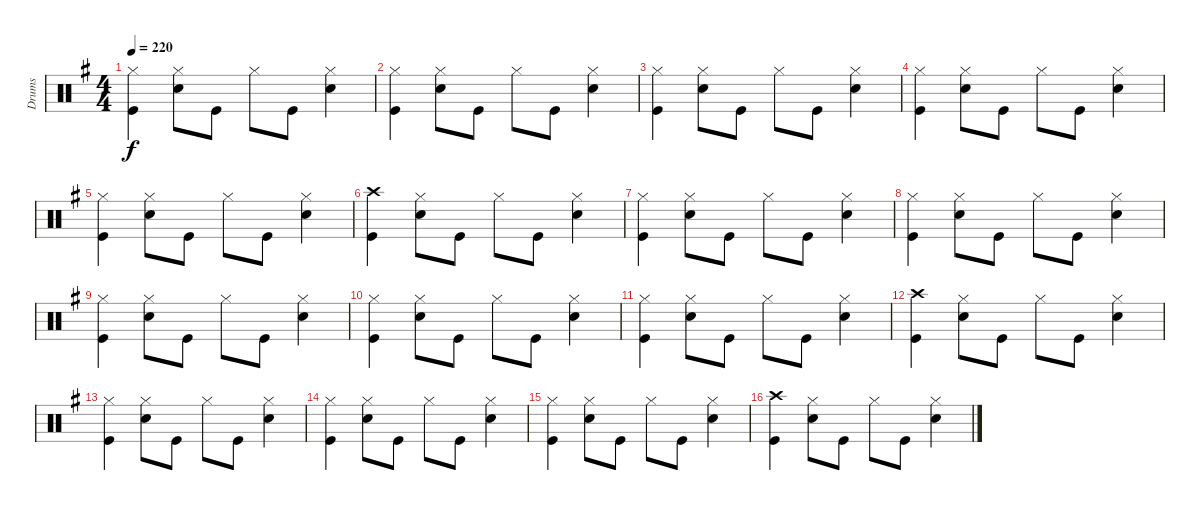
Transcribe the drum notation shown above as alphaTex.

\track ("Drums" "Drums") {instrument percussion}
\staff {score}
\articulation defaults
\ts (4 4)
\tempo 220
\clef neutral
\ks g
("Hi-Hat (closed)" "Kick (hit)").4{dy f} ("Hi-Hat (closed)" "Snare (hit) 2").8 "Kick (hit)".8 "Hi-Hat (closed)".8 "Kick (hit)".8 ("Hi-Hat (closed)" "Snare (hit) 2").4 |
("Hi-Hat (closed)" "Kick (hit)").4 ("Hi-Hat (closed)" "Snare (hit) 2").8 "Kick (hit)".8 "Hi-Hat (closed)".8 "Kick (hit)".8 ("Hi-Hat (closed)" "Snare (hit) 2").4 |
("Hi-Hat (closed)" "Kick (hit)").4 ("Hi-Hat (closed)" "Snare (hit) 2").8 "Kick (hit)".8 "Hi-Hat (closed)".8 "Kick (hit)".8 ("Hi-Hat (closed)" "Snare (hit) 2").4 |
("Hi-Hat (closed)" "Kick (hit)").4 ("Hi-Hat (closed)" "Snare (hit) 2").8 "Kick (hit)".8 "Hi-Hat (closed)".8 "Kick (hit)".8 ("Hi-Hat (closed)" "Snare (hit) 2").4 |
("Hi-Hat (closed)" "Kick (hit)").4 ("Hi-Hat (closed)" "Snare (hit) 2").8 "Kick (hit)".8 "Hi-Hat (closed)".8 "Kick (hit)".8 ("Hi-Hat (closed)" "Snare (hit) 2").4 |
("Crash high (hit)" "Kick (hit)").4 ("Hi-Hat (closed)" "Snare (hit) 2").8 "Kick (hit)".8 "Hi-Hat (closed)".8 "Kick (hit)".8 ("Hi-Hat (closed)" "Snare (hit) 2").4 |
("Hi-Hat (closed)" "Kick (hit)").4 ("Hi-Hat (closed)" "Snare (hit) 2").8 "Kick (hit)".8 "Hi-Hat (closed)".8 "Kick (hit)".8 ("Hi-Hat (closed)" "Snare (hit) 2").4 |
("Hi-Hat (closed)" "Kick (hit)").4 ("Hi-Hat (closed)" "Snare (hit) 2").8 "Kick (hit)".8 "Hi-Hat (closed)".8 "Kick (hit)".8 ("Hi-Hat (closed)" "Snare (hit) 2").4 |
("Hi-Hat (closed)" "Kick (hit)").4 ("Hi-Hat (closed)" "Snare (hit) 2").8 "Kick (hit)".8 "Hi-Hat (closed)".8 "Kick (hit)".8 ("Hi-Hat (closed)" "Snare (hit) 2").4 |
("Hi-Hat (closed)" "Kick (hit)").4 ("Hi-Hat (closed)" "Snare (hit) 2").8 "Kick (hit)".8 "Hi-Hat (closed)".8 "Kick (hit)".8 ("Hi-Hat (closed)" "Snare (hit) 2").4 |
("Hi-Hat (closed)" "Kick (hit)").4 ("Hi-Hat (closed)" "Snare (hit) 2").8 "Kick (hit)".8 "Hi-Hat (closed)".8 "Kick (hit)".8 ("Hi-Hat (closed)" "Snare (hit) 2").4 |
("Crash high (hit)" "Kick (hit)").4 ("Hi-Hat (closed)" "Snare (hit) 2").8 "Kick (hit)".8 "Hi-Hat (closed)".8 "Kick (hit)".8 ("Hi-Hat (closed)" "Snare (hit) 2").4 |
("Hi-Hat (closed)" "Kick (hit)").4 ("Hi-Hat (closed)" "Snare (hit) 2").8 "Kick (hit)".8 "Hi-Hat (closed)".8 "Kick (hit)".8 ("Hi-Hat (closed)" "Snare (hit) 2").4 |
("Hi-Hat (closed)" "Kick (hit)").4 ("Hi-Hat (closed)" "Snare (hit) 2").8 "Kick (hit)".8 "Hi-Hat (closed)".8 "Kick (hit)".8 ("Hi-Hat (closed)" "Snare (hit) 2").4 |
("Hi-Hat (closed)" "Kick (hit)").4 ("Hi-Hat (closed)" "Snare (hit) 2").8 "Kick (hit)".8 "Hi-Hat (closed)".8 "Kick (hit)".8 ("Hi-Hat (closed)" "Snare (hit) 2").4 |
("Crash high (hit)" "Kick (hit)").4 ("Hi-Hat (closed)" "Snare (hit) 2").8 "Kick (hit)".8 "Hi-Hat (closed)".8 "Kick (hit)".8 ("Hi-Hat (closed)" "Snare (hit) 2").4
